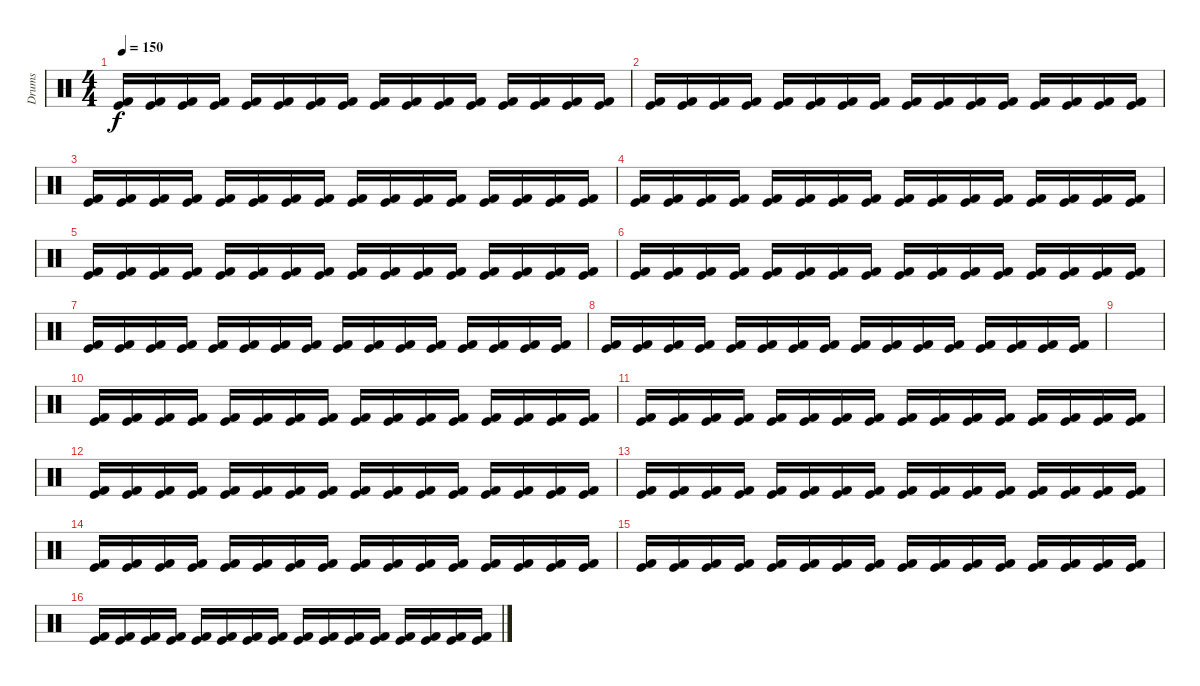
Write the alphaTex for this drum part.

\track ("Drums" "Drums") {instrument percussion}
\staff {score}
\articulation defaults
\ts (4 4)
\tempo 150
\clef neutral
\ks c
("Kick (hit) 2" "Kick (hit)").16{dy f} ("Kick (hit) 2" "Kick (hit)").16 ("Kick (hit) 2" "Kick (hit)").16 ("Kick (hit) 2" "Kick (hit)").16 ("Kick (hit) 2" "Kick (hit)").16 ("Kick (hit) 2" "Kick (hit)").16 ("Kick (hit) 2" "Kick (hit)").16 ("Kick (hit) 2" "Kick (hit)").16 ("Kick (hit) 2" "Kick (hit)").16 ("Kick (hit) 2" "Kick (hit)").16 ("Kick (hit) 2" "Kick (hit)").16 ("Kick (hit) 2" "Kick (hit)").16 ("Kick (hit) 2" "Kick (hit)").16 ("Kick (hit) 2" "Kick (hit)").16 ("Kick (hit) 2" "Kick (hit)").16 ("Kick (hit) 2" "Kick (hit)").16 |
("Kick (hit) 2" "Kick (hit)").16 ("Kick (hit) 2" "Kick (hit)").16 ("Kick (hit) 2" "Kick (hit)").16 ("Kick (hit) 2" "Kick (hit)").16 ("Kick (hit) 2" "Kick (hit)").16 ("Kick (hit) 2" "Kick (hit)").16 ("Kick (hit) 2" "Kick (hit)").16 ("Kick (hit) 2" "Kick (hit)").16 ("Kick (hit) 2" "Kick (hit)").16 ("Kick (hit) 2" "Kick (hit)").16 ("Kick (hit) 2" "Kick (hit)").16 ("Kick (hit) 2" "Kick (hit)").16 ("Kick (hit) 2" "Kick (hit)").16 ("Kick (hit) 2" "Kick (hit)").16 ("Kick (hit) 2" "Kick (hit)").16 ("Kick (hit) 2" "Kick (hit)").16 |
("Kick (hit) 2" "Kick (hit)").16 ("Kick (hit) 2" "Kick (hit)").16 ("Kick (hit) 2" "Kick (hit)").16 ("Kick (hit) 2" "Kick (hit)").16 ("Kick (hit) 2" "Kick (hit)").16 ("Kick (hit) 2" "Kick (hit)").16 ("Kick (hit) 2" "Kick (hit)").16 ("Kick (hit) 2" "Kick (hit)").16 ("Kick (hit) 2" "Kick (hit)").16 ("Kick (hit) 2" "Kick (hit)").16 ("Kick (hit) 2" "Kick (hit)").16 ("Kick (hit) 2" "Kick (hit)").16 ("Kick (hit) 2" "Kick (hit)").16 ("Kick (hit) 2" "Kick (hit)").16 ("Kick (hit) 2" "Kick (hit)").16 ("Kick (hit) 2" "Kick (hit)").16 |
("Kick (hit) 2" "Kick (hit)").16 ("Kick (hit) 2" "Kick (hit)").16 ("Kick (hit) 2" "Kick (hit)").16 ("Kick (hit) 2" "Kick (hit)").16 ("Kick (hit) 2" "Kick (hit)").16 ("Kick (hit) 2" "Kick (hit)").16 ("Kick (hit) 2" "Kick (hit)").16 ("Kick (hit) 2" "Kick (hit)").16 ("Kick (hit) 2" "Kick (hit)").16 ("Kick (hit) 2" "Kick (hit)").16 ("Kick (hit) 2" "Kick (hit)").16 ("Kick (hit) 2" "Kick (hit)").16 ("Kick (hit) 2" "Kick (hit)").16 ("Kick (hit) 2" "Kick (hit)").16 ("Kick (hit) 2" "Kick (hit)").16 ("Kick (hit) 2" "Kick (hit)").16 |
("Kick (hit) 2" "Kick (hit)").16 ("Kick (hit) 2" "Kick (hit)").16 ("Kick (hit) 2" "Kick (hit)").16 ("Kick (hit) 2" "Kick (hit)").16 ("Kick (hit) 2" "Kick (hit)").16 ("Kick (hit) 2" "Kick (hit)").16 ("Kick (hit) 2" "Kick (hit)").16 ("Kick (hit) 2" "Kick (hit)").16 ("Kick (hit) 2" "Kick (hit)").16 ("Kick (hit) 2" "Kick (hit)").16 ("Kick (hit) 2" "Kick (hit)").16 ("Kick (hit) 2" "Kick (hit)").16 ("Kick (hit) 2" "Kick (hit)").16 ("Kick (hit) 2" "Kick (hit)").16 ("Kick (hit) 2" "Kick (hit)").16 ("Kick (hit) 2" "Kick (hit)").16 |
("Kick (hit) 2" "Kick (hit)").16 ("Kick (hit) 2" "Kick (hit)").16 ("Kick (hit) 2" "Kick (hit)").16 ("Kick (hit) 2" "Kick (hit)").16 ("Kick (hit) 2" "Kick (hit)").16 ("Kick (hit) 2" "Kick (hit)").16 ("Kick (hit) 2" "Kick (hit)").16 ("Kick (hit) 2" "Kick (hit)").16 ("Kick (hit) 2" "Kick (hit)").16 ("Kick (hit) 2" "Kick (hit)").16 ("Kick (hit) 2" "Kick (hit)").16 ("Kick (hit) 2" "Kick (hit)").16 ("Kick (hit) 2" "Kick (hit)").16 ("Kick (hit) 2" "Kick (hit)").16 ("Kick (hit) 2" "Kick (hit)").16 ("Kick (hit) 2" "Kick (hit)").16 |
("Kick (hit) 2" "Kick (hit)").16 ("Kick (hit) 2" "Kick (hit)").16 ("Kick (hit) 2" "Kick (hit)").16 ("Kick (hit) 2" "Kick (hit)").16 ("Kick (hit) 2" "Kick (hit)").16 ("Kick (hit) 2" "Kick (hit)").16 ("Kick (hit) 2" "Kick (hit)").16 ("Kick (hit) 2" "Kick (hit)").16 ("Kick (hit) 2" "Kick (hit)").16 ("Kick (hit) 2" "Kick (hit)").16 ("Kick (hit) 2" "Kick (hit)").16 ("Kick (hit) 2" "Kick (hit)").16 ("Kick (hit) 2" "Kick (hit)").16 ("Kick (hit) 2" "Kick (hit)").16 ("Kick (hit) 2" "Kick (hit)").16 ("Kick (hit) 2" "Kick (hit)").16 |
("Kick (hit) 2" "Kick (hit)").16 ("Kick (hit) 2" "Kick (hit)").16 ("Kick (hit) 2" "Kick (hit)").16 ("Kick (hit) 2" "Kick (hit)").16 ("Kick (hit) 2" "Kick (hit)").16 ("Kick (hit) 2" "Kick (hit)").16 ("Kick (hit) 2" "Kick (hit)").16 ("Kick (hit) 2" "Kick (hit)").16 ("Kick (hit) 2" "Kick (hit)").16 ("Kick (hit) 2" "Kick (hit)").16 ("Kick (hit) 2" "Kick (hit)").16 ("Kick (hit) 2" "Kick (hit)").16 ("Kick (hit) 2" "Kick (hit)").16 ("Kick (hit) 2" "Kick (hit)").16 ("Kick (hit) 2" "Kick (hit)").16 ("Kick (hit) 2" "Kick (hit)").16 |
|
("Kick (hit) 2" "Kick (hit)").16 ("Kick (hit) 2" "Kick (hit)").16 ("Kick (hit) 2" "Kick (hit)").16 ("Kick (hit) 2" "Kick (hit)").16 ("Kick (hit) 2" "Kick (hit)").16 ("Kick (hit) 2" "Kick (hit)").16 ("Kick (hit) 2" "Kick (hit)").16 ("Kick (hit) 2" "Kick (hit)").16 ("Kick (hit) 2" "Kick (hit)").16 ("Kick (hit) 2" "Kick (hit)").16 ("Kick (hit) 2" "Kick (hit)").16 ("Kick (hit) 2" "Kick (hit)").16 ("Kick (hit) 2" "Kick (hit)").16 ("Kick (hit) 2" "Kick (hit)").16 ("Kick (hit) 2" "Kick (hit)").16 ("Kick (hit) 2" "Kick (hit)").16 |
("Kick (hit) 2" "Kick (hit)").16 ("Kick (hit) 2" "Kick (hit)").16 ("Kick (hit) 2" "Kick (hit)").16 ("Kick (hit) 2" "Kick (hit)").16 ("Kick (hit) 2" "Kick (hit)").16 ("Kick (hit) 2" "Kick (hit)").16 ("Kick (hit) 2" "Kick (hit)").16 ("Kick (hit) 2" "Kick (hit)").16 ("Kick (hit) 2" "Kick (hit)").16 ("Kick (hit) 2" "Kick (hit)").16 ("Kick (hit) 2" "Kick (hit)").16 ("Kick (hit) 2" "Kick (hit)").16 ("Kick (hit) 2" "Kick (hit)").16 ("Kick (hit) 2" "Kick (hit)").16 ("Kick (hit) 2" "Kick (hit)").16 ("Kick (hit) 2" "Kick (hit)").16 |
("Kick (hit) 2" "Kick (hit)").16 ("Kick (hit) 2" "Kick (hit)").16 ("Kick (hit) 2" "Kick (hit)").16 ("Kick (hit) 2" "Kick (hit)").16 ("Kick (hit) 2" "Kick (hit)").16 ("Kick (hit) 2" "Kick (hit)").16 ("Kick (hit) 2" "Kick (hit)").16 ("Kick (hit) 2" "Kick (hit)").16 ("Kick (hit) 2" "Kick (hit)").16 ("Kick (hit) 2" "Kick (hit)").16 ("Kick (hit) 2" "Kick (hit)").16 ("Kick (hit) 2" "Kick (hit)").16 ("Kick (hit) 2" "Kick (hit)").16 ("Kick (hit) 2" "Kick (hit)").16 ("Kick (hit) 2" "Kick (hit)").16 ("Kick (hit) 2" "Kick (hit)").16 |
("Kick (hit) 2" "Kick (hit)").16 ("Kick (hit) 2" "Kick (hit)").16 ("Kick (hit) 2" "Kick (hit)").16 ("Kick (hit) 2" "Kick (hit)").16 ("Kick (hit) 2" "Kick (hit)").16 ("Kick (hit) 2" "Kick (hit)").16 ("Kick (hit) 2" "Kick (hit)").16 ("Kick (hit) 2" "Kick (hit)").16 ("Kick (hit) 2" "Kick (hit)").16 ("Kick (hit) 2" "Kick (hit)").16 ("Kick (hit) 2" "Kick (hit)").16 ("Kick (hit) 2" "Kick (hit)").16 ("Kick (hit) 2" "Kick (hit)").16 ("Kick (hit) 2" "Kick (hit)").16 ("Kick (hit) 2" "Kick (hit)").16 ("Kick (hit) 2" "Kick (hit)").16 |
("Kick (hit) 2" "Kick (hit)").16 ("Kick (hit) 2" "Kick (hit)").16 ("Kick (hit) 2" "Kick (hit)").16 ("Kick (hit) 2" "Kick (hit)").16 ("Kick (hit) 2" "Kick (hit)").16 ("Kick (hit) 2" "Kick (hit)").16 ("Kick (hit) 2" "Kick (hit)").16 ("Kick (hit) 2" "Kick (hit)").16 ("Kick (hit) 2" "Kick (hit)").16 ("Kick (hit) 2" "Kick (hit)").16 ("Kick (hit) 2" "Kick (hit)").16 ("Kick (hit) 2" "Kick (hit)").16 ("Kick (hit) 2" "Kick (hit)").16 ("Kick (hit) 2" "Kick (hit)").16 ("Kick (hit) 2" "Kick (hit)").16 ("Kick (hit) 2" "Kick (hit)").16 |
("Kick (hit) 2" "Kick (hit)").16 ("Kick (hit) 2" "Kick (hit)").16 ("Kick (hit) 2" "Kick (hit)").16 ("Kick (hit) 2" "Kick (hit)").16 ("Kick (hit) 2" "Kick (hit)").16 ("Kick (hit) 2" "Kick (hit)").16 ("Kick (hit) 2" "Kick (hit)").16 ("Kick (hit) 2" "Kick (hit)").16 ("Kick (hit) 2" "Kick (hit)").16 ("Kick (hit) 2" "Kick (hit)").16 ("Kick (hit) 2" "Kick (hit)").16 ("Kick (hit) 2" "Kick (hit)").16 ("Kick (hit) 2" "Kick (hit)").16 ("Kick (hit) 2" "Kick (hit)").16 ("Kick (hit) 2" "Kick (hit)").16 ("Kick (hit) 2" "Kick (hit)").16 |
("Kick (hit) 2" "Kick (hit)").16 ("Kick (hit) 2" "Kick (hit)").16 ("Kick (hit) 2" "Kick (hit)").16 ("Kick (hit) 2" "Kick (hit)").16 ("Kick (hit) 2" "Kick (hit)").16 ("Kick (hit) 2" "Kick (hit)").16 ("Kick (hit) 2" "Kick (hit)").16 ("Kick (hit) 2" "Kick (hit)").16 ("Kick (hit) 2" "Kick (hit)").16 ("Kick (hit) 2" "Kick (hit)").16 ("Kick (hit) 2" "Kick (hit)").16 ("Kick (hit) 2" "Kick (hit)").16 ("Kick (hit) 2" "Kick (hit)").16 ("Kick (hit) 2" "Kick (hit)").16 ("Kick (hit) 2" "Kick (hit)").16 ("Kick (hit) 2" "Kick (hit)").16
